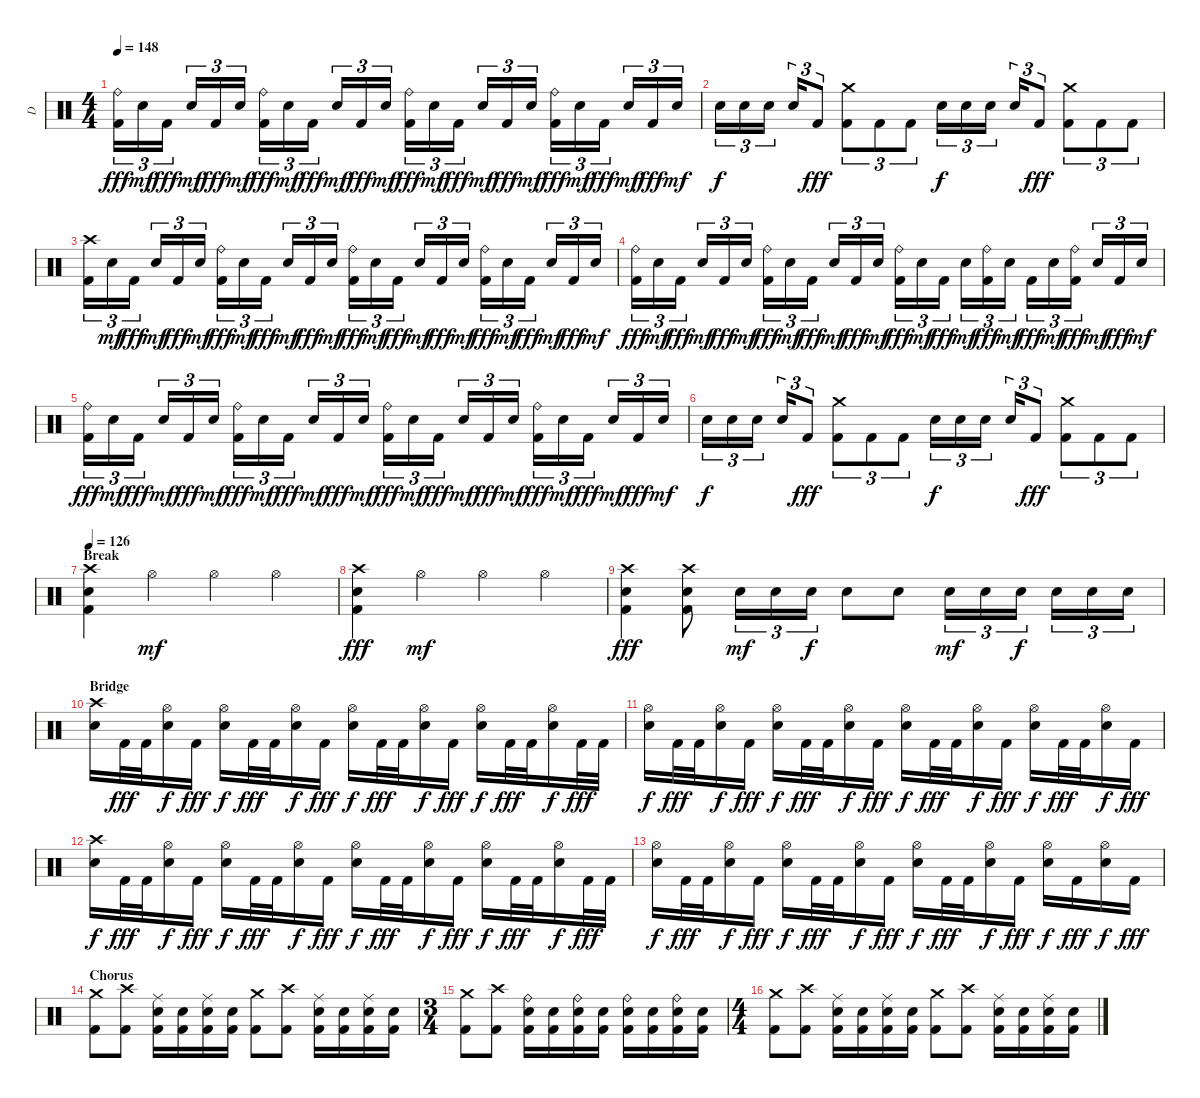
\track ("D" "D") {instrument percussion}
\staff {score}
\articulation defaults
\ts (4 4)
\tempo 148
\clef neutral
\ks c
("Ride (bell)" "Kick (hit) 2").16{tu (3 2) dy fff} "Electric Snare (hit)".16{tu (3 2) dy mf} "Kick (hit) 2".16{tu (3 2) dy fff} "Electric Snare (hit)".16{tu (3 2) dy mf} "Kick (hit) 2".16{tu (3 2) dy fff} "Electric Snare (hit)".16{tu (3 2) dy mf} ("Ride (bell)" "Kick (hit) 2").16{tu (3 2) dy fff} "Electric Snare (hit)".16{tu (3 2) dy mf} "Kick (hit) 2".16{tu (3 2) dy fff} "Electric Snare (hit)".16{tu (3 2) dy mf} "Kick (hit) 2".16{tu (3 2) dy fff} "Electric Snare (hit)".16{tu (3 2) dy mf} ("Ride (bell)" "Kick (hit) 2").16{tu (3 2) dy fff} "Electric Snare (hit)".16{tu (3 2) dy mf} "Kick (hit) 2".16{tu (3 2) dy fff} "Electric Snare (hit)".16{tu (3 2) dy mf} "Kick (hit) 2".16{tu (3 2) dy fff} "Electric Snare (hit)".16{tu (3 2) dy mf} ("Ride (bell)" "Kick (hit) 2").16{tu (3 2) dy fff} "Electric Snare (hit)".16{tu (3 2) dy mf} "Kick (hit) 2".16{tu (3 2) dy fff} "Electric Snare (hit)".16{tu (3 2) dy mf} "Kick (hit) 2".16{tu (3 2) dy fff} "Electric Snare (hit)".16{tu (3 2) dy mf} |
"Electric Snare (hit)".16{tu (3 2) dy f} "Electric Snare (hit)".16{tu (3 2)} "Electric Snare (hit)".16{tu (3 2)} "Electric Snare (hit)".16{tu (3 2)} "Kick (hit) 2".8{tu (3 2) dy fff} ("Crash medium (hit)" "Kick (hit) 2").8{tu (3 2)} "Kick (hit) 2".8{tu (3 2)} "Kick (hit) 2".8{tu (3 2)} "Electric Snare (hit)".16{tu (3 2) dy f} "Electric Snare (hit)".16{tu (3 2)} "Electric Snare (hit)".16{tu (3 2)} "Electric Snare (hit)".16{tu (3 2)} "Kick (hit) 2".8{tu (3 2) dy fff} ("Crash medium (hit)" "Kick (hit) 2").8{tu (3 2)} "Kick (hit) 2".8{tu (3 2)} "Kick (hit) 2".8{tu (3 2)} |
("Crash high (hit)" "Kick (hit) 2").16{tu (3 2)} "Electric Snare (hit)".16{tu (3 2) dy mf} "Kick (hit) 2".16{tu (3 2) dy fff} "Electric Snare (hit)".16{tu (3 2) dy mf} "Kick (hit) 2".16{tu (3 2) dy fff} "Electric Snare (hit)".16{tu (3 2) dy mf} ("Ride (bell)" "Kick (hit) 2").16{tu (3 2) dy fff} "Electric Snare (hit)".16{tu (3 2) dy mf} "Kick (hit) 2".16{tu (3 2) dy fff} "Electric Snare (hit)".16{tu (3 2) dy mf} "Kick (hit) 2".16{tu (3 2) dy fff} "Electric Snare (hit)".16{tu (3 2) dy mf} ("Ride (bell)" "Kick (hit) 2").16{tu (3 2) dy fff} "Electric Snare (hit)".16{tu (3 2) dy mf} "Kick (hit) 2".16{tu (3 2) dy fff} "Electric Snare (hit)".16{tu (3 2) dy mf} "Kick (hit) 2".16{tu (3 2) dy fff} "Electric Snare (hit)".16{tu (3 2) dy mf} ("Ride (bell)" "Kick (hit) 2").16{tu (3 2) dy fff} "Electric Snare (hit)".16{tu (3 2) dy mf} "Kick (hit) 2".16{tu (3 2) dy fff} "Electric Snare (hit)".16{tu (3 2) dy mf} "Kick (hit) 2".16{tu (3 2) dy fff} "Electric Snare (hit)".16{tu (3 2) dy mf} |
("Ride (bell)" "Kick (hit) 2").16{tu (3 2) dy fff} "Electric Snare (hit)".16{tu (3 2) dy mf} "Kick (hit) 2".16{tu (3 2) dy fff} "Electric Snare (hit)".16{tu (3 2) dy mf} "Kick (hit) 2".16{tu (3 2) dy fff} "Electric Snare (hit)".16{tu (3 2) dy mf} ("Ride (bell)" "Kick (hit) 2").16{tu (3 2) dy fff} "Electric Snare (hit)".16{tu (3 2) dy mf} "Kick (hit) 2".16{tu (3 2) dy fff} "Electric Snare (hit)".16{tu (3 2) dy mf} "Kick (hit) 2".16{tu (3 2) dy fff} "Electric Snare (hit)".16{tu (3 2) dy mf} ("Ride (bell)" "Kick (hit) 2").16{tu (3 2) dy fff} "Electric Snare (hit)".16{tu (3 2) dy mf} "Kick (hit) 2".16{tu (3 2) dy fff} "Electric Snare (hit)".16{tu (3 2) dy mf} ("Ride (bell)" "Kick (hit) 2").16{tu (3 2) dy fff} "Electric Snare (hit)".16{tu (3 2) dy mf} "Kick (hit) 2".16{tu (3 2) dy fff} "Electric Snare (hit)".16{tu (3 2) dy mf} ("Ride (bell)" "Kick (hit) 2").16{tu (3 2) dy fff} "Electric Snare (hit)".16{tu (3 2) dy mf} "Kick (hit) 2".16{tu (3 2) dy fff} "Electric Snare (hit)".16{tu (3 2) dy mf} |
("Ride (bell)" "Kick (hit) 2").16{tu (3 2) dy fff} "Electric Snare (hit)".16{tu (3 2) dy mf} "Kick (hit) 2".16{tu (3 2) dy fff} "Electric Snare (hit)".16{tu (3 2) dy mf} "Kick (hit) 2".16{tu (3 2) dy fff} "Electric Snare (hit)".16{tu (3 2) dy mf} ("Ride (bell)" "Kick (hit) 2").16{tu (3 2) dy fff} "Electric Snare (hit)".16{tu (3 2) dy mf} "Kick (hit) 2".16{tu (3 2) dy fff} "Electric Snare (hit)".16{tu (3 2) dy mf} "Kick (hit) 2".16{tu (3 2) dy fff} "Electric Snare (hit)".16{tu (3 2) dy mf} ("Ride (bell)" "Kick (hit) 2").16{tu (3 2) dy fff} "Electric Snare (hit)".16{tu (3 2) dy mf} "Kick (hit) 2".16{tu (3 2) dy fff} "Electric Snare (hit)".16{tu (3 2) dy mf} "Kick (hit) 2".16{tu (3 2) dy fff} "Electric Snare (hit)".16{tu (3 2) dy mf} ("Ride (bell)" "Kick (hit) 2").16{tu (3 2) dy fff} "Electric Snare (hit)".16{tu (3 2) dy mf} "Kick (hit) 2".16{tu (3 2) dy fff} "Electric Snare (hit)".16{tu (3 2) dy mf} "Kick (hit) 2".16{tu (3 2) dy fff} "Electric Snare (hit)".16{tu (3 2) dy mf} |
"Electric Snare (hit)".16{tu (3 2) dy f} "Electric Snare (hit)".16{tu (3 2)} "Electric Snare (hit)".16{tu (3 2)} "Electric Snare (hit)".16{tu (3 2)} "Kick (hit) 2".8{tu (3 2) dy fff} ("Crash medium (hit)" "Kick (hit) 2").8{tu (3 2)} "Kick (hit) 2".8{tu (3 2)} "Kick (hit) 2".8{tu (3 2)} "Electric Snare (hit)".16{tu (3 2) dy f} "Electric Snare (hit)".16{tu (3 2)} "Electric Snare (hit)".16{tu (3 2)} "Electric Snare (hit)".16{tu (3 2)} "Kick (hit) 2".8{tu (3 2) dy fff} ("Crash medium (hit)" "Kick (hit) 2").8{tu (3 2)} "Kick (hit) 2".8{tu (3 2)} "Kick (hit) 2".8{tu (3 2)} |
\section ("" "Break")
\tempo 126
("Crash high (hit)" "Electric Snare (hit)" "Kick (hit) 2").4 "Hi-Hat (open)".4{dy mf} "Hi-Hat (open)".4 "Hi-Hat (open)".4 |
("Crash high (hit)" "Electric Snare (hit)" "Kick (hit) 2").4{dy fff} "Hi-Hat (open)".4{dy mf} "Hi-Hat (open)".4 "Hi-Hat (open)".4 |
("Crash high (hit)" "Electric Snare (hit)" "Kick (hit) 2").4{dy fff} ("Crash high (hit)" "Electric Snare (hit)" "Kick (hit) 2").8 "Electric Snare (hit)".16{tu (3 2) dy mf} "Electric Snare (hit)".16{tu (3 2)} "Electric Snare (hit)".16{tu (3 2) dy f} "Electric Snare (hit)".8 "Electric Snare (hit)".8 "Electric Snare (hit)".16{tu (3 2) dy mf} "Electric Snare (hit)".16{tu (3 2)} "Electric Snare (hit)".16{tu (3 2) dy f} "Electric Snare (hit)".16{tu (3 2)} "Electric Snare (hit)".16{tu (3 2)} "Electric Snare (hit)".16{tu (3 2)} |
\section ("" "Bridge")
("Crash high (hit)" "Electric Snare (hit)").16 "Kick (hit) 2".32{dy fff} "Kick (hit) 2".32 ("Hi-Hat (open)" "Electric Snare (hit)").16{dy f} "Kick (hit) 2".16{dy fff} ("Hi-Hat (open)" "Electric Snare (hit)").16{dy f} "Kick (hit) 2".32{dy fff} "Kick (hit) 2".32 ("Hi-Hat (open)" "Electric Snare (hit)").16{dy f} "Kick (hit) 2".16{dy fff} ("Hi-Hat (open)" "Electric Snare (hit)").16{dy f} "Kick (hit) 2".32{dy fff} "Kick (hit) 2".32 ("Hi-Hat (open)" "Electric Snare (hit)").16{dy f} "Kick (hit) 2".16{dy fff} ("Hi-Hat (open)" "Electric Snare (hit)").16{dy f} "Kick (hit) 2".32{dy fff} "Kick (hit) 2".32 ("Hi-Hat (open)" "Electric Snare (hit)").16{dy f} "Kick (hit) 2".32{dy fff} "Kick (hit) 2".32 |
("Hi-Hat (open)" "Electric Snare (hit)").16{dy f} "Kick (hit) 2".32{dy fff} "Kick (hit) 2".32 ("Hi-Hat (open)" "Electric Snare (hit)").16{dy f} "Kick (hit) 2".16{dy fff} ("Hi-Hat (open)" "Electric Snare (hit)").16{dy f} "Kick (hit) 2".32{dy fff} "Kick (hit) 2".32 ("Hi-Hat (open)" "Electric Snare (hit)").16{dy f} "Kick (hit) 2".16{dy fff} ("Hi-Hat (open)" "Electric Snare (hit)").16{dy f} "Kick (hit) 2".32{dy fff} "Kick (hit) 2".32 ("Hi-Hat (open)" "Electric Snare (hit)").16{dy f} "Kick (hit) 2".16{dy fff} ("Hi-Hat (open)" "Electric Snare (hit)").16{dy f} "Kick (hit) 2".32{dy fff} "Kick (hit) 2".32 ("Hi-Hat (open)" "Electric Snare (hit)").16{dy f} "Kick (hit) 2".16{dy fff} |
("Crash high (hit)" "Electric Snare (hit)").16{dy f} "Kick (hit) 2".32{dy fff} "Kick (hit) 2".32 ("Hi-Hat (open)" "Electric Snare (hit)").16{dy f} "Kick (hit) 2".16{dy fff} ("Hi-Hat (open)" "Electric Snare (hit)").16{dy f} "Kick (hit) 2".32{dy fff} "Kick (hit) 2".32 ("Hi-Hat (open)" "Electric Snare (hit)").16{dy f} "Kick (hit) 2".16{dy fff} ("Hi-Hat (open)" "Electric Snare (hit)").16{dy f} "Kick (hit) 2".32{dy fff} "Kick (hit) 2".32 ("Hi-Hat (open)" "Electric Snare (hit)").16{dy f} "Kick (hit) 2".16{dy fff} ("Hi-Hat (open)" "Electric Snare (hit)").16{dy f} "Kick (hit) 2".32{dy fff} "Kick (hit) 2".32 ("Hi-Hat (open)" "Electric Snare (hit)").16{dy f} "Kick (hit) 2".32{dy fff} "Kick (hit) 2".32 |
("Hi-Hat (open)" "Electric Snare (hit)").16{dy f} "Kick (hit) 2".32{dy fff} "Kick (hit) 2".32 ("Hi-Hat (open)" "Electric Snare (hit)").16{dy f} "Kick (hit) 2".16{dy fff} ("Hi-Hat (open)" "Electric Snare (hit)").16{dy f} "Kick (hit) 2".32{dy fff} "Kick (hit) 2".32 ("Hi-Hat (open)" "Electric Snare (hit)").16{dy f} "Kick (hit) 2".16{dy fff} ("Hi-Hat (open)" "Electric Snare (hit)").16{dy f} "Kick (hit) 2".32{dy fff} "Kick (hit) 2".32 ("Hi-Hat (open)" "Electric Snare (hit)").16{dy f} "Kick (hit) 2".16{dy fff} ("Hi-Hat (open)" "Electric Snare (hit)").16{dy f} "Kick (hit) 2".16{dy fff} ("Hi-Hat (open)" "Electric Snare (hit)").16{dy f} "Kick (hit) 2".16{dy fff} |
\section ("" "Chorus")
("Crash medium (hit)" "Kick (hit) 2").8 ("Crash high (hit)" "Kick (hit) 2").8 ("Ride (middle)" "Electric Snare (hit)" "Kick (hit) 2").16 ("Electric Snare (hit)" "Kick (hit) 2").16 ("Ride (middle)" "Electric Snare (hit)" "Kick (hit) 2").16 ("Electric Snare (hit)" "Kick (hit) 2").16 ("Crash medium (hit)" "Kick (hit) 2").8 ("Crash high (hit)" "Kick (hit) 2").8 ("Ride (middle)" "Electric Snare (hit)" "Kick (hit) 2").16 ("Electric Snare (hit)" "Kick (hit) 2").16 ("Ride (middle)" "Electric Snare (hit)" "Kick (hit) 2").16 ("Electric Snare (hit)" "Kick (hit) 2").16 |
\ts (3 4)
("Crash medium (hit)" "Kick (hit) 2").8 ("Crash high (hit)" "Kick (hit) 2").8 ("Ride (bell)" "Electric Snare (hit)" "Kick (hit) 2").16 ("Electric Snare (hit)" "Kick (hit) 2").16 ("Ride (bell)" "Electric Snare (hit)" "Kick (hit) 2").16 ("Electric Snare (hit)" "Kick (hit) 2").16 ("Ride (bell)" "Electric Snare (hit)" "Kick (hit) 2").16 ("Electric Snare (hit)" "Kick (hit) 2").16 ("Ride (bell)" "Electric Snare (hit)" "Kick (hit) 2").16 ("Electric Snare (hit)" "Kick (hit) 2").16 |
\ts (4 4)
("Crash medium (hit)" "Kick (hit) 2").8 ("Crash high (hit)" "Kick (hit) 2").8 ("Ride (middle)" "Electric Snare (hit)" "Kick (hit) 2").16 ("Electric Snare (hit)" "Kick (hit) 2").16 ("Ride (middle)" "Electric Snare (hit)" "Kick (hit) 2").16 ("Electric Snare (hit)" "Kick (hit) 2").16 ("Crash medium (hit)" "Kick (hit) 2").8 ("Crash high (hit)" "Kick (hit) 2").8 ("Ride (middle)" "Electric Snare (hit)" "Kick (hit) 2").16 ("Electric Snare (hit)" "Kick (hit) 2").16 ("Ride (middle)" "Electric Snare (hit)" "Kick (hit) 2").16 ("Electric Snare (hit)" "Kick (hit) 2").16
